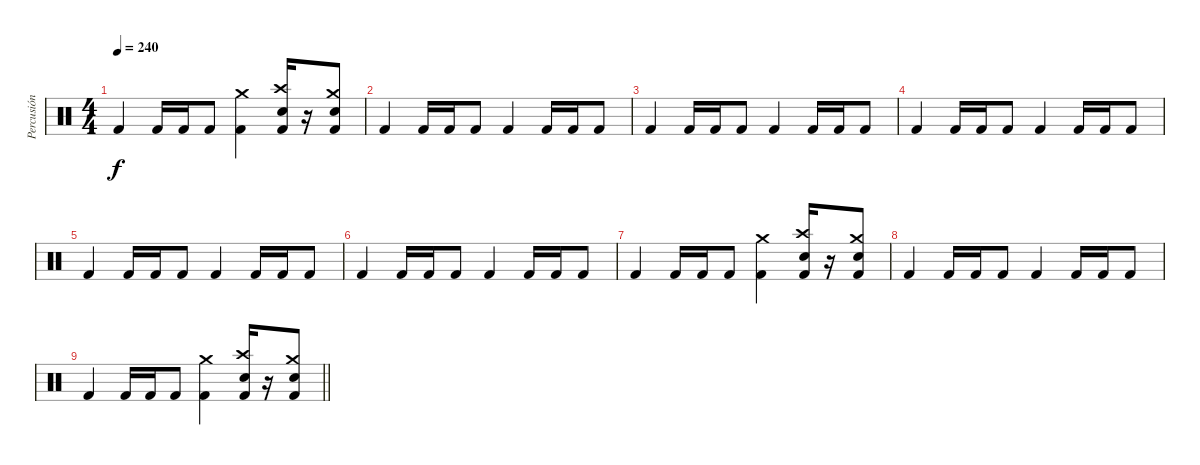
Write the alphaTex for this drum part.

\track ("Percusión" "Percusión") {instrument percussion}
\staff {score}
\articulation defaults
\ts (4 4)
\tempo 240
\clef neutral
\ks c "Kick (hit) 2".4{dy f} "Kick (hit) 2".16 "Kick (hit) 2".16 "Kick (hit) 2".8
("Crash medium (hit)" "Kick (hit) 2").4 ("Crash high (hit)" "Electric Snare (hit)" "Kick (hit) 2").16 r.16 ("Crash medium (hit)" "Electric Snare (hit)" "Kick (hit) 2").8 |
"Kick (hit) 2".4 "Kick (hit) 2".16 "Kick (hit) 2".16 "Kick (hit) 2".8 "Kick (hit) 2".4 "Kick (hit) 2".16 "Kick (hit) 2".16 "Kick (hit) 2".8 |
"Kick (hit) 2".4 "Kick (hit) 2".16 "Kick (hit) 2".16 "Kick (hit) 2".8 "Kick (hit) 2".4 "Kick (hit) 2".16 "Kick (hit) 2".16 "Kick (hit) 2".8 |
"Kick (hit) 2".4 "Kick (hit) 2".16 "Kick (hit) 2".16 "Kick (hit) 2".8 "Kick (hit) 2".4 "Kick (hit) 2".16 "Kick (hit) 2".16 "Kick (hit) 2".8 |
"Kick (hit) 2".4 "Kick (hit) 2".16 "Kick (hit) 2".16 "Kick (hit) 2".8 "Kick (hit) 2".4 "Kick (hit) 2".16 "Kick (hit) 2".16 "Kick (hit) 2".8 |
"Kick (hit) 2".4 "Kick (hit) 2".16 "Kick (hit) 2".16 "Kick (hit) 2".8 "Kick (hit) 2".4 "Kick (hit) 2".16 "Kick (hit) 2".16 "Kick (hit) 2".8 |
"Kick (hit) 2".4 "Kick (hit) 2".16 "Kick (hit) 2".16 "Kick (hit) 2".8 ("Crash medium (hit)" "Kick (hit) 2").4 ("Crash high (hit)" "Electric Snare (hit)" "Kick (hit) 2").16 r.16 ("Crash medium (hit)" "Electric Snare (hit)" "Kick (hit) 2").8 |
"Kick (hit) 2".4 "Kick (hit) 2".16 "Kick (hit) 2".16 "Kick (hit) 2".8 "Kick (hit) 2".4 "Kick (hit) 2".16 "Kick (hit) 2".16 "Kick (hit) 2".8 |
\barLineRight lightlight "Kick (hit) 2".4 "Kick (hit) 2".16 "Kick (hit) 2".16 "Kick (hit) 2".8
("Crash medium (hit)" "Kick (hit) 2").4 ("Crash high (hit)" "Electric Snare (hit)" "Kick (hit) 2").16 r.16 ("Crash medium (hit)" "Electric Snare (hit)" "Kick (hit) 2").8
